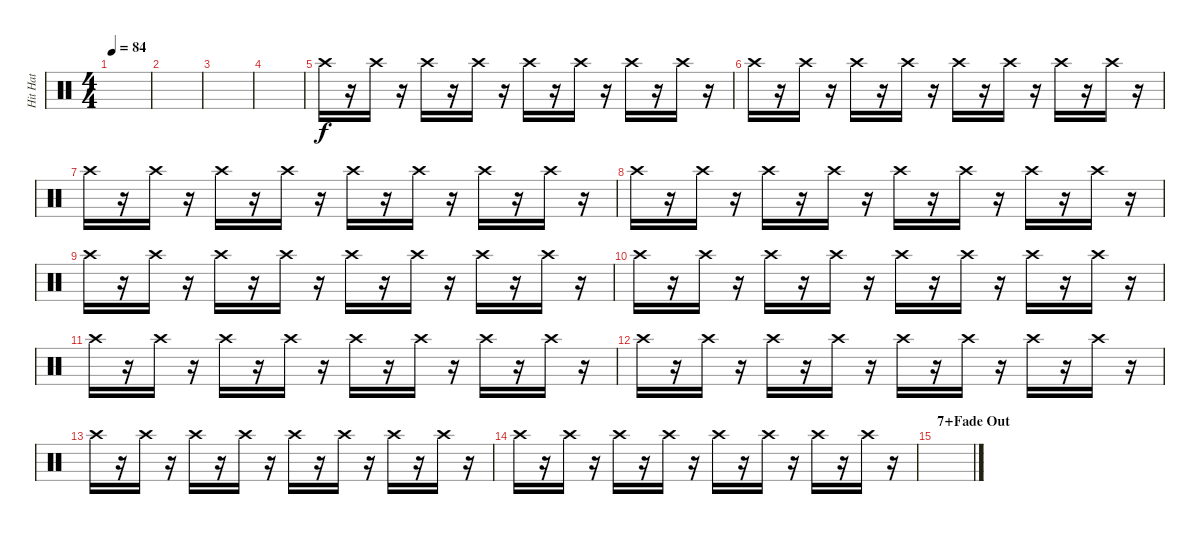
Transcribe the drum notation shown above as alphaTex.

\track ("Hit Hat" "Hit Hat") {instrument percussion}
\staff {score}
\articulation defaults
\ts (4 4)
\tempo 84
\clef neutral
\ks c
|
|
|
|
"Crash high (hit)".16 r.16 "Crash high (hit)".16 r.16 "Crash high (hit)".16 r.16 "Crash high (hit)".16 r.16 "Crash high (hit)".16 r.16 "Crash high (hit)".16 r.16 "Crash high (hit)".16 r.16 "Crash high (hit)".16 r.16 |
"Crash high (hit)".16 r.16 "Crash high (hit)".16 r.16 "Crash high (hit)".16 r.16 "Crash high (hit)".16 r.16 "Crash high (hit)".16 r.16 "Crash high (hit)".16 r.16 "Crash high (hit)".16 r.16 "Crash high (hit)".16 r.16 |
"Crash high (hit)".16 r.16 "Crash high (hit)".16 r.16 "Crash high (hit)".16 r.16 "Crash high (hit)".16 r.16 "Crash high (hit)".16 r.16 "Crash high (hit)".16 r.16 "Crash high (hit)".16 r.16 "Crash high (hit)".16 r.16 |
"Crash high (hit)".16 r.16 "Crash high (hit)".16 r.16 "Crash high (hit)".16 r.16 "Crash high (hit)".16 r.16 "Crash high (hit)".16 r.16 "Crash high (hit)".16 r.16 "Crash high (hit)".16 r.16 "Crash high (hit)".16 r.16 |
"Crash high (hit)".16 r.16 "Crash high (hit)".16 r.16 "Crash high (hit)".16 r.16 "Crash high (hit)".16 r.16 "Crash high (hit)".16 r.16 "Crash high (hit)".16 r.16 "Crash high (hit)".16 r.16 "Crash high (hit)".16 r.16 |
"Crash high (hit)".16 r.16 "Crash high (hit)".16 r.16 "Crash high (hit)".16 r.16 "Crash high (hit)".16 r.16 "Crash high (hit)".16 r.16 "Crash high (hit)".16 r.16 "Crash high (hit)".16 r.16 "Crash high (hit)".16 r.16 |
"Crash high (hit)".16 r.16 "Crash high (hit)".16 r.16 "Crash high (hit)".16 r.16 "Crash high (hit)".16 r.16 "Crash high (hit)".16 r.16 "Crash high (hit)".16 r.16 "Crash high (hit)".16 r.16 "Crash high (hit)".16 r.16 |
"Crash high (hit)".16 r.16 "Crash high (hit)".16 r.16 "Crash high (hit)".16 r.16 "Crash high (hit)".16 r.16 "Crash high (hit)".16 r.16 "Crash high (hit)".16 r.16 "Crash high (hit)".16 r.16 "Crash high (hit)".16 r.16 |
"Crash high (hit)".16 r.16 "Crash high (hit)".16 r.16 "Crash high (hit)".16 r.16 "Crash high (hit)".16 r.16 "Crash high (hit)".16 r.16 "Crash high (hit)".16 r.16 "Crash high (hit)".16 r.16 "Crash high (hit)".16 r.16 |
"Crash high (hit)".16 r.16 "Crash high (hit)".16 r.16 "Crash high (hit)".16 r.16 "Crash high (hit)".16 r.16 "Crash high (hit)".16 r.16 "Crash high (hit)".16 r.16 "Crash high (hit)".16 r.16 "Crash high (hit)".16 r.16 |
\section ("" "7+Fade Out")
